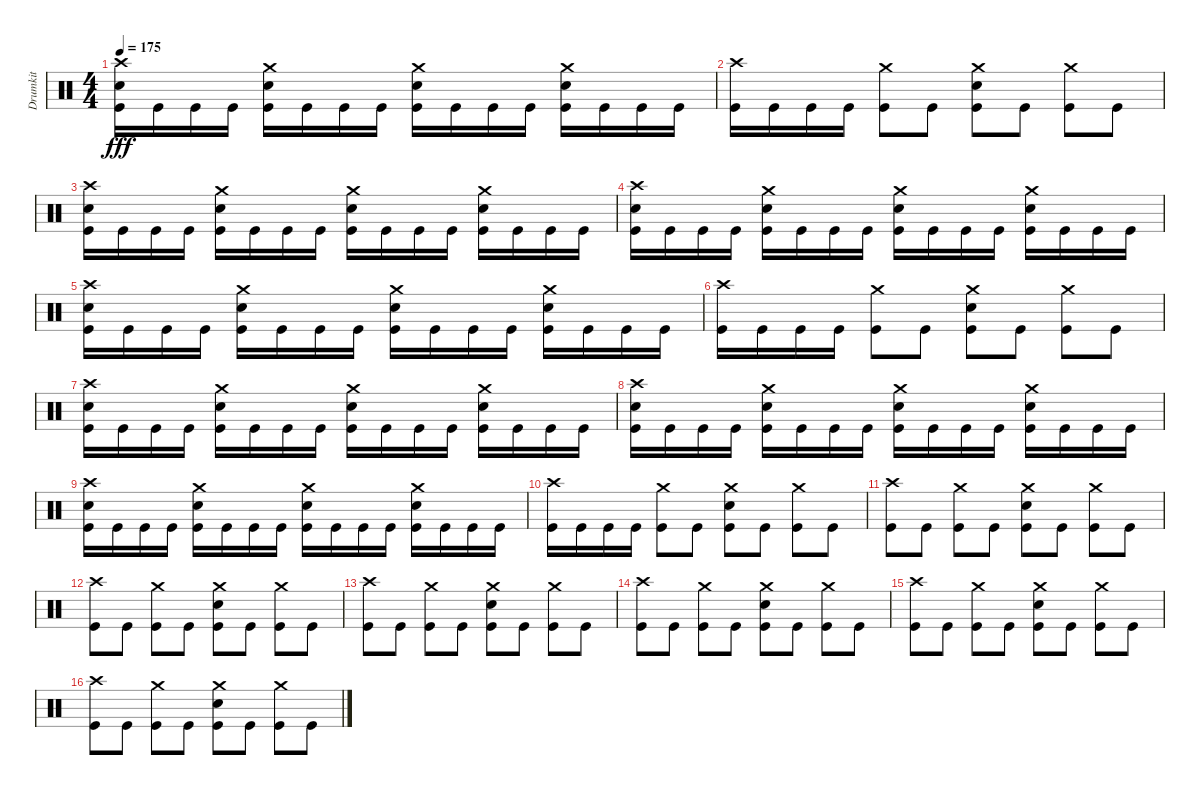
\track ("Drumkit" "Drumkit") {instrument percussion}
\staff {score}
\articulation defaults
\ts (4 4)
\tempo 175
\clef neutral
\ks c
("Crash high (hit)" "Snare (hit) 2" "Kick (hit)").16{dy fff} "Kick (hit)".16 "Kick (hit)".16 "Kick (hit)".16 ("Crash medium (hit)" "Snare (hit) 2" "Kick (hit)").16 "Kick (hit)".16 "Kick (hit)".16 "Kick (hit)".16 ("Crash medium (hit)" "Snare (hit) 2" "Kick (hit)").16 "Kick (hit)".16 "Kick (hit)".16 "Kick (hit)".16 ("Crash medium (hit)" "Snare (hit) 2" "Kick (hit)").16 "Kick (hit)".16 "Kick (hit)".16 "Kick (hit)".16 |
("Crash high (hit)" "Kick (hit)").16 "Kick (hit)".16 "Kick (hit)".16 "Kick (hit)".16 ("Crash medium (hit)" "Kick (hit)").8 "Kick (hit)".8 ("Crash medium (hit)" "Snare (hit) 2" "Kick (hit)").8 "Kick (hit)".8 ("Crash medium (hit)" "Kick (hit)").8 "Kick (hit)".8 |
("Crash high (hit)" "Snare (hit) 2" "Kick (hit)").16 "Kick (hit)".16 "Kick (hit)".16 "Kick (hit)".16 ("Crash medium (hit)" "Snare (hit) 2" "Kick (hit)").16 "Kick (hit)".16 "Kick (hit)".16 "Kick (hit)".16 ("Crash medium (hit)" "Snare (hit) 2" "Kick (hit)").16 "Kick (hit)".16 "Kick (hit)".16 "Kick (hit)".16 ("Crash medium (hit)" "Snare (hit) 2" "Kick (hit)").16 "Kick (hit)".16 "Kick (hit)".16 "Kick (hit)".16 |
("Crash high (hit)" "Snare (hit) 2" "Kick (hit)").16 "Kick (hit)".16 "Kick (hit)".16 "Kick (hit)".16 ("Crash medium (hit)" "Snare (hit) 2" "Kick (hit)").16 "Kick (hit)".16 "Kick (hit)".16 "Kick (hit)".16 ("Crash medium (hit)" "Snare (hit) 2" "Kick (hit)").16 "Kick (hit)".16 "Kick (hit)".16 "Kick (hit)".16 ("Crash medium (hit)" "Snare (hit) 2" "Kick (hit)").16 "Kick (hit)".16 "Kick (hit)".16 "Kick (hit)".16 |
("Crash high (hit)" "Snare (hit) 2" "Kick (hit)").16 "Kick (hit)".16 "Kick (hit)".16 "Kick (hit)".16 ("Crash medium (hit)" "Snare (hit) 2" "Kick (hit)").16 "Kick (hit)".16 "Kick (hit)".16 "Kick (hit)".16 ("Crash medium (hit)" "Snare (hit) 2" "Kick (hit)").16 "Kick (hit)".16 "Kick (hit)".16 "Kick (hit)".16 ("Crash medium (hit)" "Snare (hit) 2" "Kick (hit)").16 "Kick (hit)".16 "Kick (hit)".16 "Kick (hit)".16 |
("Crash high (hit)" "Kick (hit)").16 "Kick (hit)".16 "Kick (hit)".16 "Kick (hit)".16 ("Crash medium (hit)" "Kick (hit)").8 "Kick (hit)".8 ("Crash medium (hit)" "Snare (hit) 2" "Kick (hit)").8 "Kick (hit)".8 ("Crash medium (hit)" "Kick (hit)").8 "Kick (hit)".8 |
("Crash high (hit)" "Snare (hit) 2" "Kick (hit)").16 "Kick (hit)".16 "Kick (hit)".16 "Kick (hit)".16 ("Crash medium (hit)" "Snare (hit) 2" "Kick (hit)").16 "Kick (hit)".16 "Kick (hit)".16 "Kick (hit)".16 ("Crash medium (hit)" "Snare (hit) 2" "Kick (hit)").16 "Kick (hit)".16 "Kick (hit)".16 "Kick (hit)".16 ("Crash medium (hit)" "Snare (hit) 2" "Kick (hit)").16 "Kick (hit)".16 "Kick (hit)".16 "Kick (hit)".16 |
("Crash high (hit)" "Snare (hit) 2" "Kick (hit)").16 "Kick (hit)".16 "Kick (hit)".16 "Kick (hit)".16 ("Crash medium (hit)" "Snare (hit) 2" "Kick (hit)").16 "Kick (hit)".16 "Kick (hit)".16 "Kick (hit)".16 ("Crash medium (hit)" "Snare (hit) 2" "Kick (hit)").16 "Kick (hit)".16 "Kick (hit)".16 "Kick (hit)".16 ("Crash medium (hit)" "Snare (hit) 2" "Kick (hit)").16 "Kick (hit)".16 "Kick (hit)".16 "Kick (hit)".16 |
("Crash high (hit)" "Snare (hit) 2" "Kick (hit)").16 "Kick (hit)".16 "Kick (hit)".16 "Kick (hit)".16 ("Crash medium (hit)" "Snare (hit) 2" "Kick (hit)").16 "Kick (hit)".16 "Kick (hit)".16 "Kick (hit)".16 ("Crash medium (hit)" "Snare (hit) 2" "Kick (hit)").16 "Kick (hit)".16 "Kick (hit)".16 "Kick (hit)".16 ("Crash medium (hit)" "Snare (hit) 2" "Kick (hit)").16 "Kick (hit)".16 "Kick (hit)".16 "Kick (hit)".16 |
("Crash high (hit)" "Kick (hit)").16 "Kick (hit)".16 "Kick (hit)".16 "Kick (hit)".16 ("Crash medium (hit)" "Kick (hit)").8 "Kick (hit)".8 ("Crash medium (hit)" "Snare (hit) 2" "Kick (hit)").8 "Kick (hit)".8 ("Crash medium (hit)" "Kick (hit)").8 "Kick (hit)".8 |
("Crash high (hit)" "Kick (hit)").8 "Kick (hit)".8 ("Crash medium (hit)" "Kick (hit)").8 "Kick (hit)".8 ("Crash medium (hit)" "Snare (hit) 2" "Kick (hit)").8 "Kick (hit)".8 ("Crash medium (hit)" "Kick (hit)").8 "Kick (hit)".8 |
("Crash high (hit)" "Kick (hit)").8 "Kick (hit)".8 ("Crash medium (hit)" "Kick (hit)").8 "Kick (hit)".8 ("Crash medium (hit)" "Snare (hit) 2" "Kick (hit)").8 "Kick (hit)".8 ("Crash medium (hit)" "Kick (hit)").8 "Kick (hit)".8 |
("Crash high (hit)" "Kick (hit)").8 "Kick (hit)".8 ("Crash medium (hit)" "Kick (hit)").8 "Kick (hit)".8 ("Crash medium (hit)" "Snare (hit) 2" "Kick (hit)").8 "Kick (hit)".8 ("Crash medium (hit)" "Kick (hit)").8 "Kick (hit)".8 |
("Crash high (hit)" "Kick (hit)").8 "Kick (hit)".8 ("Crash medium (hit)" "Kick (hit)").8 "Kick (hit)".8 ("Crash medium (hit)" "Snare (hit) 2" "Kick (hit)").8 "Kick (hit)".8 ("Crash medium (hit)" "Kick (hit)").8 "Kick (hit)".8 |
("Crash high (hit)" "Kick (hit)").8 "Kick (hit)".8 ("Crash medium (hit)" "Kick (hit)").8 "Kick (hit)".8 ("Crash medium (hit)" "Snare (hit) 2" "Kick (hit)").8 "Kick (hit)".8 ("Crash medium (hit)" "Kick (hit)").8 "Kick (hit)".8 |
("Crash high (hit)" "Kick (hit)").8 "Kick (hit)".8 ("Crash medium (hit)" "Kick (hit)").8 "Kick (hit)".8 ("Crash medium (hit)" "Snare (hit) 2" "Kick (hit)").8 "Kick (hit)".8 ("Crash medium (hit)" "Kick (hit)").8 "Kick (hit)".8
